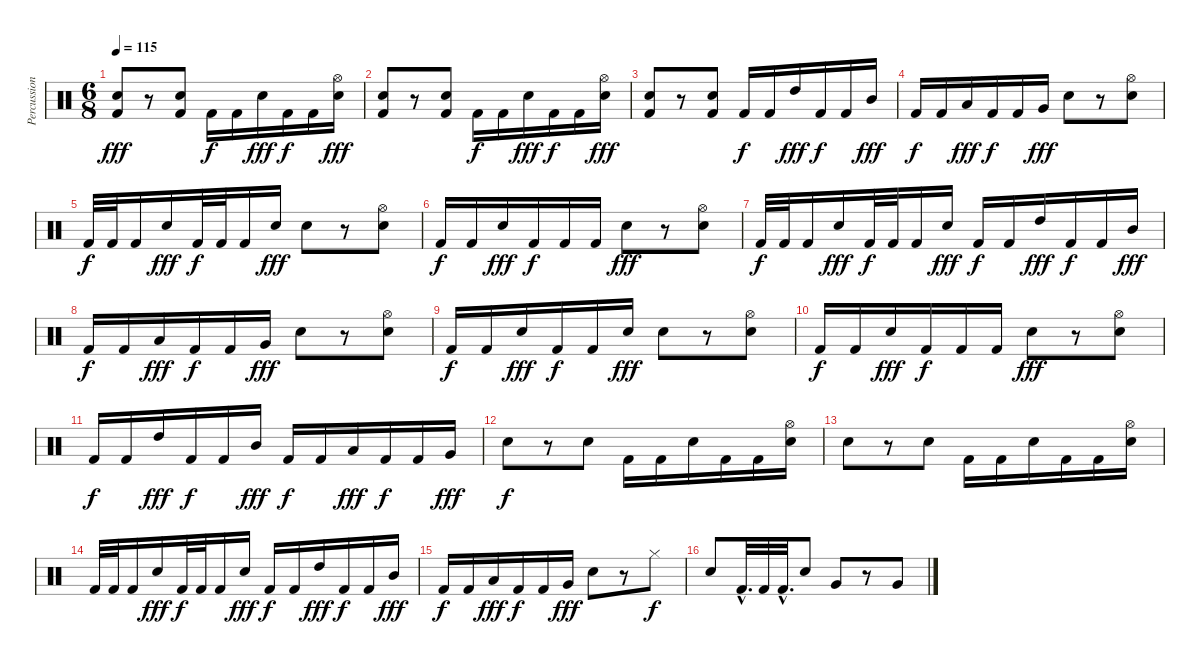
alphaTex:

\track ("Percussioni" "Percussion") {instrument percussion}
\staff {score}
\articulation defaults
\ts (6 8)
\tempo 115
\clef neutral
\ks c
("Electric Snare (hit)" "Kick (hit) 2").8{dy fff} r.8 ("Electric Snare (hit)" "Kick (hit) 2").8 "Kick (hit) 2".16{dy f} "Kick (hit) 2".16 "Electric Snare (hit)".16{dy fff} "Kick (hit) 2".16{dy f} "Kick (hit) 2".16 ("Hi-Hat (open)" "Electric Snare (hit)").16{dy fff} |
("Electric Snare (hit)" "Kick (hit) 2").8 r.8 ("Electric Snare (hit)" "Kick (hit) 2").8 "Kick (hit) 2".16{dy f} "Kick (hit) 2".16 "Electric Snare (hit)".16{dy fff} "Kick (hit) 2".16{dy f} "Kick (hit) 2".16 ("Hi-Hat (open)" "Electric Snare (hit)").16{dy fff} |
("Electric Snare (hit)" "Kick (hit) 2").8 r.8 ("Electric Snare (hit)" "Kick (hit) 2").8 "Kick (hit) 2".16{dy f} "Kick (hit) 2".16 "High Tom (hit)".16{dy fff} "Kick (hit) 2".16{dy f} "Kick (hit) 2".16 "Mid Tom (hit)".16{dy fff} |
"Kick (hit) 2".16{dy f} "Kick (hit) 2".16 "Low Tom (hit)".16{dy fff} "Kick (hit) 2".16{dy f} "Kick (hit) 2".16 "Very Low Tom (hit)".16{dy fff} "Electric Snare (hit)".8 r.8 ("Hi-Hat (open)" "Electric Snare (hit)").8 |
"Kick (hit) 2".32{dy f} "Kick (hit) 2".32 "Kick (hit) 2".16 "Electric Snare (hit)".16{dy fff} "Kick (hit) 2".32{dy f} "Kick (hit) 2".32 "Kick (hit) 2".16 "Electric Snare (hit)".16{dy fff} "Electric Snare (hit)".8 r.8 ("Hi-Hat (open)" "Electric Snare (hit)").8 |
"Kick (hit) 2".16{dy f} "Kick (hit) 2".16 "Electric Snare (hit)".16{dy fff} "Kick (hit) 2".16{dy f} "Kick (hit) 2".16 "Kick (hit) 2".16 "Electric Snare (hit)".8{dy fff} r.8 ("Hi-Hat (open)" "Electric Snare (hit)").8 |
"Kick (hit) 2".32{dy f} "Kick (hit) 2".32 "Kick (hit) 2".16 "Electric Snare (hit)".16{dy fff} "Kick (hit) 2".32{dy f} "Kick (hit) 2".32 "Kick (hit) 2".16 "Electric Snare (hit)".16{dy fff} "Kick (hit) 2".16{dy f} "Kick (hit) 2".16 "High Tom (hit)".16{dy fff} "Kick (hit) 2".16{dy f} "Kick (hit) 2".16 "Mid Tom (hit)".16{dy fff} |
"Kick (hit) 2".16{dy f} "Kick (hit) 2".16 "Low Tom (hit)".16{dy fff} "Kick (hit) 2".16{dy f} "Kick (hit) 2".16 "Very Low Tom (hit)".16{dy fff} "Electric Snare (hit)".8 r.8 ("Hi-Hat (open)" "Electric Snare (hit)").8 |
"Kick (hit) 2".16{dy f} "Kick (hit) 2".16 "Electric Snare (hit)".16{dy fff} "Kick (hit) 2".16{dy f} "Kick (hit) 2".16 "Electric Snare (hit)".16{dy fff} "Electric Snare (hit)".8 r.8 ("Hi-Hat (open)" "Electric Snare (hit)").8 |
"Kick (hit) 2".16{dy f} "Kick (hit) 2".16 "Electric Snare (hit)".16{dy fff} "Kick (hit) 2".16{dy f} "Kick (hit) 2".16 "Kick (hit) 2".16 "Electric Snare (hit)".8{dy fff} r.8 ("Hi-Hat (open)" "Electric Snare (hit)").8 |
"Kick (hit) 2".16{dy f} "Kick (hit) 2".16 "High Tom (hit)".16{dy fff} "Kick (hit) 2".16{dy f} "Kick (hit) 2".16 "Mid Tom (hit)".16{dy fff} "Kick (hit) 2".16{dy f} "Kick (hit) 2".16 "Low Tom (hit)".16{dy fff} "Kick (hit) 2".16{dy f} "Kick (hit) 2".16 "Very Low Tom (hit)".16{dy fff} |
"Electric Snare (hit)".8{dy f} r.8 "Electric Snare (hit)".8 "Kick (hit) 2".16 "Kick (hit) 2".16 "Electric Snare (hit)".16 "Kick (hit) 2".16 "Kick (hit) 2".16 ("Hi-Hat (open)" "Electric Snare (hit)").16 |
"Electric Snare (hit)".8 r.8 "Electric Snare (hit)".8 "Kick (hit) 2".16 "Kick (hit) 2".16 "Electric Snare (hit)".16 "Kick (hit) 2".16 "Kick (hit) 2".16 ("Hi-Hat (open)" "Electric Snare (hit)").16 |
"Kick (hit) 2".32 "Kick (hit) 2".32 "Kick (hit) 2".16 "Electric Snare (hit)".16{dy fff} "Kick (hit) 2".32{dy f} "Kick (hit) 2".32 "Kick (hit) 2".16 "Electric Snare (hit)".16{dy fff} "Kick (hit) 2".16{dy f} "Kick (hit) 2".16 "High Tom (hit)".16{dy fff} "Kick (hit) 2".16{dy f} "Kick (hit) 2".16 "Mid Tom (hit)".16{dy fff} |
"Kick (hit) 2".16{dy f} "Kick (hit) 2".16 "Low Tom (hit)".16{dy fff} "Kick (hit) 2".16{dy f} "Kick (hit) 2".16 "Very Low Tom (hit)".16{dy fff} "Electric Snare (hit)".8 r.8 "Hi-Hat (closed)".8{dy f} |
"Electric Snare (hit)".8 "Kick (hit) 2"{hac}.32{d} "Kick (hit) 2".32 "Kick (hit) 2"{hac}.32{d} "Electric Snare (hit)".8 "Very Low Tom (hit)".8 r.8 "Very Low Tom (hit)".8
